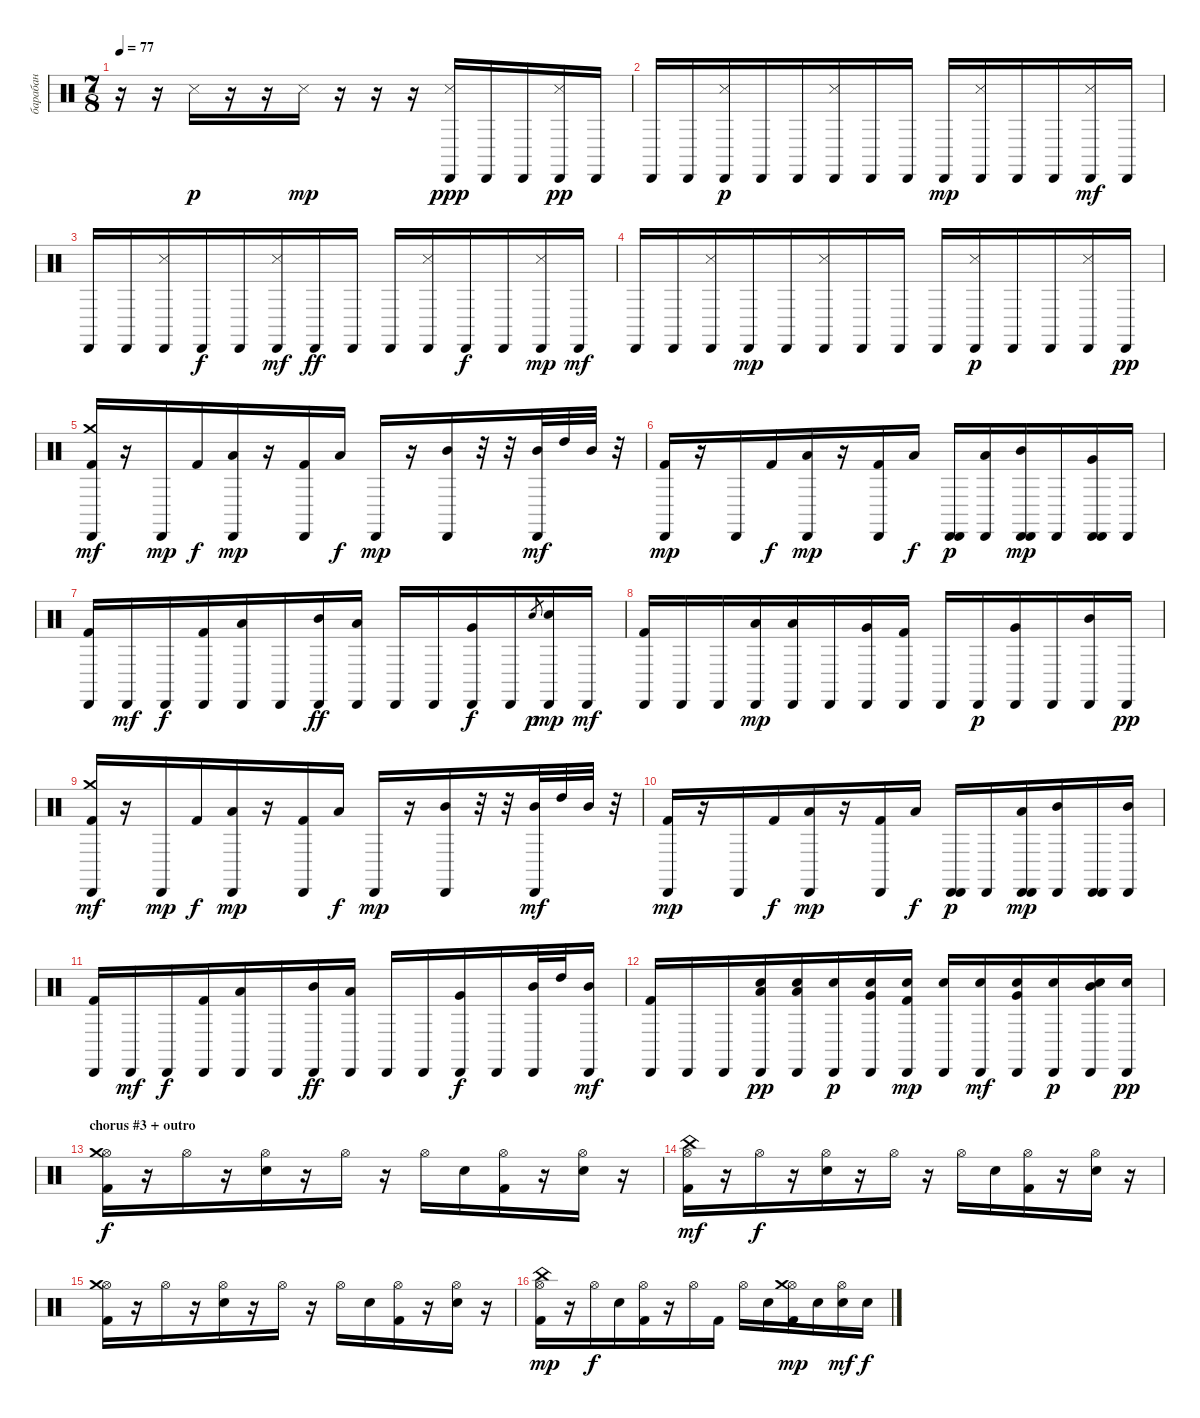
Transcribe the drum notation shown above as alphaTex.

\track ("барабан" "барабан") {instrument percussion}
\staff {score}
\articulation defaults
\ts (7 8)
\tempo 77
\clef neutral
\ks c
r.16{dy f} r.16 "Metronome (hit)".16{dy p} r.16 r.16 "Metronome (hit)".16{dy mp} r.16 r.16 r.16 ("Metronome (hit)" "Cabasa (hit)").16{dy ppp} "Cabasa (hit)".16 "Cabasa (hit)".16 ("Metronome (hit)" "Cabasa (hit)").16{dy pp} "Cabasa (hit)".16 |
"Cabasa (hit)".16 "Cabasa (hit)".16 ("Metronome (hit)" "Cabasa (hit)").16{dy p} "Cabasa (hit)".16 "Cabasa (hit)".16 ("Metronome (hit)" "Cabasa (hit)").16 "Cabasa (hit)".16 "Cabasa (hit)".16 "Cabasa (hit)".16{dy mp} ("Metronome (hit)" "Cabasa (hit)").16 "Cabasa (hit)".16 "Cabasa (hit)".16 ("Metronome (hit)" "Cabasa (hit)").16{dy mf} "Cabasa (hit)".16 |
"Cabasa (hit)".16 "Cabasa (hit)".16 ("Metronome (hit)" "Cabasa (hit)").16 "Cabasa (hit)".16{dy f} "Cabasa (hit)".16 ("Metronome (hit)" "Cabasa (hit)").16{dy mf} "Cabasa (hit)".16{dy ff} "Cabasa (hit)".16 "Cabasa (hit)".16 ("Metronome (hit)" "Cabasa (hit)").16 "Cabasa (hit)".16{dy f} "Cabasa (hit)".16 ("Metronome (hit)" "Cabasa (hit)").16{dy mp} "Cabasa (hit)".16{dy mf} |
"Cabasa (hit)".16 "Cabasa (hit)".16 ("Metronome (hit)" "Cabasa (hit)").16 "Cabasa (hit)".16{dy mp} "Cabasa (hit)".16 ("Metronome (hit)" "Cabasa (hit)").16 "Cabasa (hit)".16 "Cabasa (hit)".16 "Cabasa (hit)".16 ("Metronome (hit)" "Cabasa (hit)").16{dy p} "Cabasa (hit)".16 "Cabasa (hit)".16 ("Metronome (hit)" "Cabasa (hit)").16 "Cabasa (hit)".16{dy pp} |
("Cabasa (hit)" "Crash medium (hit)" "Kick (hit) 2").16{dy mf} r.16 "Cabasa (hit)".16{dy mp} "Kick (hit) 2".16{dy f} ("Cabasa (hit)" "Low Floor Tom (hit)").16{dy mp} r.16 ("Cabasa (hit)" "Kick (hit) 2").16 "Low Tom (hit)".16{dy f} "Cabasa (hit)".16{dy mp} r.16 ("Cabasa (hit)" "Mid Tom (hit)").16 r.32 r.32 ("Cabasa (hit)" "Mid Tom (hit)").32{dy mf} "High Tom (hit)".32 "Mid Tom (hit)".32 r.32 |
("Cabasa (hit)" "Kick (hit) 2").16{dy mp} r.16 "Cabasa (hit)".16 "Kick (hit) 2".16{dy f} ("Cabasa (hit)" "Low Floor Tom (hit)").16{dy mp} r.16 ("Cabasa (hit)" "Kick (hit) 2").16 "Low Tom (hit)".16{dy f} ("Cabasa (hit)" "Cabasa (hit)").16{dy p} ("Cabasa (hit)" "Low Tom (hit)").16 ("Cabasa (hit)" "Cabasa (hit)" "Mid Tom (hit)").16{dy mp} "Cabasa (hit)".16 ("Cabasa (hit)" "Cabasa (hit)" "Very Low Tom (hit)").16 "Cabasa (hit)".16 |
("Cabasa (hit)" "Kick (hit) 2").16 "Cabasa (hit)".16{dy mf} "Cabasa (hit)".16{dy f} ("Cabasa (hit)" "Kick (hit) 2").16 ("Cabasa (hit)" "Low Floor Tom (hit)").16 "Cabasa (hit)".16 ("Cabasa (hit)" "Mid Tom (hit)").16{dy ff} ("Cabasa (hit)" "Low Tom (hit)").16 "Cabasa (hit)".16 "Cabasa (hit)".16 ("Cabasa (hit)" "Very Low Tom (hit)").16{dy f} "Cabasa (hit)".16 "Electric Snare (hit)".8{gr dy p} ("Cabasa (hit)" "Snare (hit)").16{dy mp} "Cabasa (hit)".16{dy mf} |
("Cabasa (hit)" "Kick (hit) 2").16 "Cabasa (hit)".16 "Cabasa (hit)".16 ("Cabasa (hit)" "Low Tom (hit)").16{dy mp} ("Cabasa (hit)" "Low Floor Tom (hit)").16 "Cabasa (hit)".16 ("Cabasa (hit)" "Very Low Tom (hit)").16 ("Cabasa (hit)" "Kick (hit) 2").16 "Cabasa (hit)".16 "Cabasa (hit)".16{dy p} ("Cabasa (hit)" "Very Low Tom (hit)").16 "Cabasa (hit)".16 ("Cabasa (hit)" "Mid Tom (hit)").16 "Cabasa (hit)".16{dy pp} |
("Cabasa (hit)" "Crash medium (hit)" "Kick (hit) 2").16{dy mf} r.16 "Cabasa (hit)".16{dy mp} "Kick (hit) 2".16{dy f} ("Cabasa (hit)" "Low Floor Tom (hit)").16{dy mp} r.16 ("Cabasa (hit)" "Kick (hit) 2").16 "Low Tom (hit)".16{dy f} "Cabasa (hit)".16{dy mp} r.16 ("Cabasa (hit)" "Mid Tom (hit)").16 r.32 r.32 ("Cabasa (hit)" "Mid Tom (hit)").32{dy mf} "High Tom (hit)".32 "Mid Tom (hit)".32 r.32 |
("Cabasa (hit)" "Kick (hit) 2").16{dy mp} r.16 "Cabasa (hit)".16 "Kick (hit) 2".16{dy f} ("Cabasa (hit)" "Low Floor Tom (hit)").16{dy mp} r.16 ("Cabasa (hit)" "Kick (hit) 2").16 "Low Tom (hit)".16{dy f} ("Cabasa (hit)" "Cabasa (hit)").16{dy p} "Cabasa (hit)".16 ("Cabasa (hit)" "Cabasa (hit)" "Low Floor Tom (hit)").16{dy mp} ("Cabasa (hit)" "Mid Tom (hit)").16 ("Cabasa (hit)" "Cabasa (hit)").16 ("Cabasa (hit)" "Mid Tom (hit)").16 |
("Cabasa (hit)" "Kick (hit) 2").16 "Cabasa (hit)".16{dy mf} "Cabasa (hit)".16{dy f} ("Cabasa (hit)" "Kick (hit) 2").16 ("Cabasa (hit)" "Low Floor Tom (hit)").16 "Cabasa (hit)".16 ("Cabasa (hit)" "Mid Tom (hit)").16{dy ff} ("Cabasa (hit)" "Low Tom (hit)").16 "Cabasa (hit)".16 "Cabasa (hit)".16 ("Cabasa (hit)" "Very Low Tom (hit)").16{dy f} "Cabasa (hit)".16 ("Cabasa (hit)" "Mid Tom (hit)").32 "High Tom (hit)".32 ("Cabasa (hit)" "Mid Tom (hit)").16{dy mf} |
("Cabasa (hit)" "Kick (hit) 2").16 "Cabasa (hit)".16 "Cabasa (hit)".16 ("Cabasa (hit)" "Electric Snare (hit)" "Low Tom (hit)").16{dy pp} ("Cabasa (hit)" "Electric Snare (hit)" "Low Floor Tom (hit)").16 ("Cabasa (hit)" "Electric Snare (hit)").16{dy p} ("Cabasa (hit)" "Electric Snare (hit)" "Very Low Tom (hit)").16 ("Cabasa (hit)" "Electric Snare (hit)" "Kick (hit) 2").16{dy mp} ("Cabasa (hit)" "Electric Snare (hit)").16 ("Cabasa (hit)" "Electric Snare (hit)").16{dy mf} ("Cabasa (hit)" "Electric Snare (hit)" "Very Low Tom (hit)").16 ("Cabasa (hit)" "Electric Snare (hit)").16{dy p} ("Cabasa (hit)" "Electric Snare (hit)" "Mid Tom (hit)").16 ("Cabasa (hit)" "Electric Snare (hit)").16{dy pp} |
\section ("" "chorus #3 + outro")
("Hi-Hat (open)" "Crash medium (hit)" "Kick (hit) 2").16{dy f} r.16 "Hi-Hat (open)".16 r.16 ("Hi-Hat (open)" "Electric Snare (hit)").16 r.16 "Hi-Hat (open)".16 r.16 "Hi-Hat (open)".16 "Electric Snare (hit)".16 ("Hi-Hat (open)" "Kick (hit) 2").16 r.16 ("Hi-Hat (open)" "Electric Snare (hit)").16 r.16 |
("Hi-Hat (open)" "China (hit)" "Kick (hit) 2").16{dy mf} r.16 "Hi-Hat (open)".16{dy f} r.16 ("Hi-Hat (open)" "Electric Snare (hit)").16 r.16 "Hi-Hat (open)".16 r.16 "Hi-Hat (open)".16 "Electric Snare (hit)".16 ("Hi-Hat (open)" "Kick (hit) 2").16 r.16 ("Hi-Hat (open)" "Electric Snare (hit)").16 r.16 |
("Hi-Hat (open)" "Crash medium (hit)" "Kick (hit) 2").16 r.16 "Hi-Hat (open)".16 r.16 ("Hi-Hat (open)" "Electric Snare (hit)").16 r.16 "Hi-Hat (open)".16 r.16 "Hi-Hat (open)".16 "Electric Snare (hit)".16 ("Hi-Hat (open)" "Kick (hit) 2").16 r.16 ("Hi-Hat (open)" "Electric Snare (hit)").16 r.16 |
("Hi-Hat (open)" "China (hit)" "Kick (hit) 2").16{dy mp} r.16 "Hi-Hat (open)".16{dy f} "Electric Snare (hit)".16 ("Hi-Hat (open)" "Kick (hit) 2").16 r.16 "Hi-Hat (open)".16 "Kick (hit) 2".16 "Hi-Hat (open)".16 "Electric Snare (hit)".16 ("Hi-Hat (open)" "Crash medium (hit)" "Kick (hit) 2").16{dy mp} "Electric Snare (hit)".16 ("Hi-Hat (open)" "Electric Snare (hit)").16{dy mf} "Electric Snare (hit)".16{dy f}
